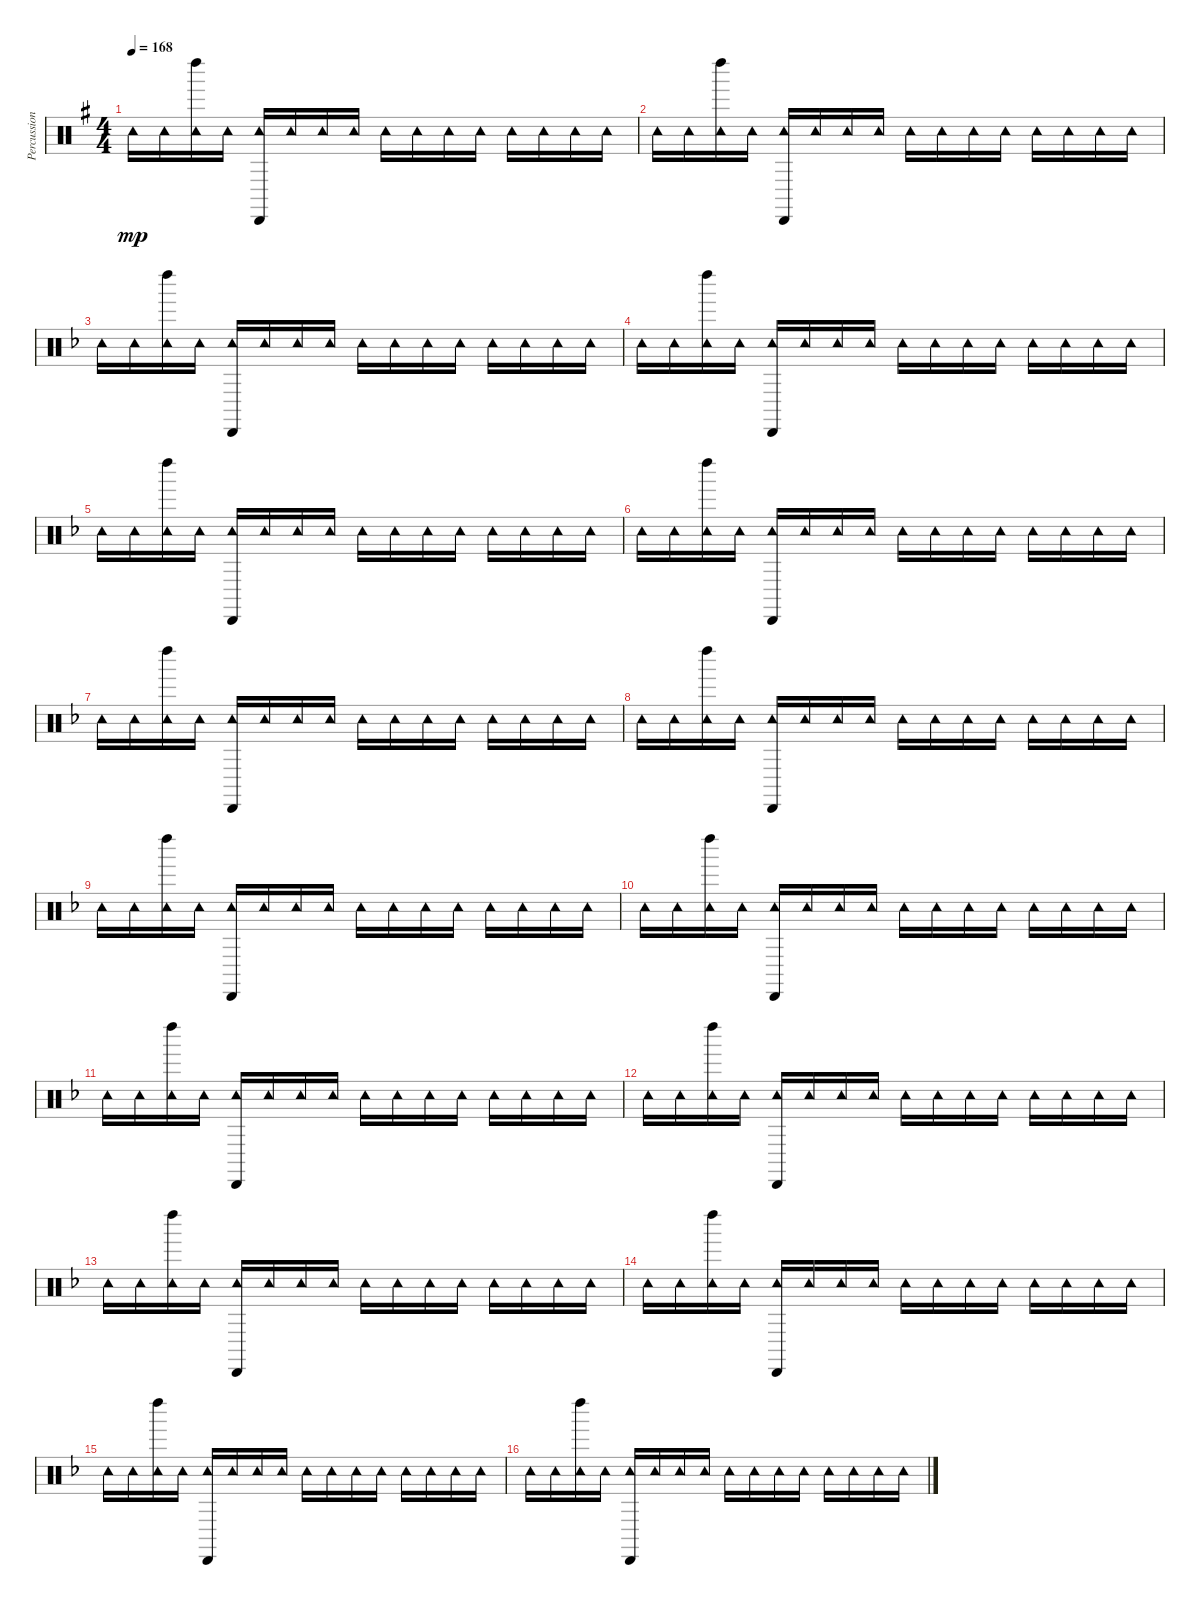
\track ("Percussions" "Percussion") {instrument percussion}
\staff {score}
\articulation defaults
\ts (4 4)
\tempo 168
\clef neutral
\ks g "Tambourine (hit)".16{dy mp} "Tambourine (hit)".16
("Left Maraca (hit)" "Tambourine (hit)").16 "Tambourine (hit)".16 ("Cabasa (hit)" "Tambourine (hit)").16 "Tambourine (hit)".16 "Tambourine (hit)".16 "Tambourine (hit)".16 "Tambourine (hit)".16 "Tambourine (hit)".16 "Tambourine (hit)".16 "Tambourine (hit)".16 "Tambourine (hit)".16 "Tambourine (hit)".16 "Tambourine (hit)".16 "Tambourine (hit)".16 |
"Tambourine (hit)".16 "Tambourine (hit)".16 ("Left Maraca (hit)" "Tambourine (hit)").16 "Tambourine (hit)".16 ("Cabasa (hit)" "Tambourine (hit)").16 "Tambourine (hit)".16 "Tambourine (hit)".16 "Tambourine (hit)".16 "Tambourine (hit)".16 "Tambourine (hit)".16 "Tambourine (hit)".16 "Tambourine (hit)".16 "Tambourine (hit)".16 "Tambourine (hit)".16 "Tambourine (hit)".16 "Tambourine (hit)".16 |
\ks f "Tambourine (hit)".16 "Tambourine (hit)".16
("Left Maraca (hit)" "Tambourine (hit)").16 "Tambourine (hit)".16 ("Cabasa (hit)" "Tambourine (hit)").16 "Tambourine (hit)".16 "Tambourine (hit)".16 "Tambourine (hit)".16 "Tambourine (hit)".16 "Tambourine (hit)".16 "Tambourine (hit)".16 "Tambourine (hit)".16 "Tambourine (hit)".16 "Tambourine (hit)".16 "Tambourine (hit)".16 "Tambourine (hit)".16 |
"Tambourine (hit)".16 "Tambourine (hit)".16 ("Left Maraca (hit)" "Tambourine (hit)").16 "Tambourine (hit)".16 ("Cabasa (hit)" "Tambourine (hit)").16 "Tambourine (hit)".16 "Tambourine (hit)".16 "Tambourine (hit)".16 "Tambourine (hit)".16 "Tambourine (hit)".16 "Tambourine (hit)".16 "Tambourine (hit)".16 "Tambourine (hit)".16 "Tambourine (hit)".16 "Tambourine (hit)".16 "Tambourine (hit)".16 |
"Tambourine (hit)".16 "Tambourine (hit)".16 ("Left Maraca (hit)" "Tambourine (hit)").16 "Tambourine (hit)".16 ("Cabasa (hit)" "Tambourine (hit)").16 "Tambourine (hit)".16 "Tambourine (hit)".16 "Tambourine (hit)".16 "Tambourine (hit)".16 "Tambourine (hit)".16 "Tambourine (hit)".16 "Tambourine (hit)".16 "Tambourine (hit)".16 "Tambourine (hit)".16 "Tambourine (hit)".16 "Tambourine (hit)".16 |
"Tambourine (hit)".16 "Tambourine (hit)".16 ("Left Maraca (hit)" "Tambourine (hit)").16 "Tambourine (hit)".16 ("Cabasa (hit)" "Tambourine (hit)").16 "Tambourine (hit)".16 "Tambourine (hit)".16 "Tambourine (hit)".16 "Tambourine (hit)".16 "Tambourine (hit)".16 "Tambourine (hit)".16 "Tambourine (hit)".16 "Tambourine (hit)".16 "Tambourine (hit)".16 "Tambourine (hit)".16 "Tambourine (hit)".16 |
"Tambourine (hit)".16 "Tambourine (hit)".16 ("Left Maraca (hit)" "Tambourine (hit)").16 "Tambourine (hit)".16 ("Cabasa (hit)" "Tambourine (hit)").16 "Tambourine (hit)".16 "Tambourine (hit)".16 "Tambourine (hit)".16 "Tambourine (hit)".16 "Tambourine (hit)".16 "Tambourine (hit)".16 "Tambourine (hit)".16 "Tambourine (hit)".16 "Tambourine (hit)".16 "Tambourine (hit)".16 "Tambourine (hit)".16 |
"Tambourine (hit)".16 "Tambourine (hit)".16 ("Left Maraca (hit)" "Tambourine (hit)").16 "Tambourine (hit)".16 ("Cabasa (hit)" "Tambourine (hit)").16 "Tambourine (hit)".16 "Tambourine (hit)".16 "Tambourine (hit)".16 "Tambourine (hit)".16 "Tambourine (hit)".16 "Tambourine (hit)".16 "Tambourine (hit)".16 "Tambourine (hit)".16 "Tambourine (hit)".16 "Tambourine (hit)".16 "Tambourine (hit)".16 |
"Tambourine (hit)".16 "Tambourine (hit)".16 ("Left Maraca (hit)" "Tambourine (hit)").16 "Tambourine (hit)".16 ("Cabasa (hit)" "Tambourine (hit)").16 "Tambourine (hit)".16 "Tambourine (hit)".16 "Tambourine (hit)".16 "Tambourine (hit)".16 "Tambourine (hit)".16 "Tambourine (hit)".16 "Tambourine (hit)".16 "Tambourine (hit)".16 "Tambourine (hit)".16 "Tambourine (hit)".16 "Tambourine (hit)".16 |
"Tambourine (hit)".16 "Tambourine (hit)".16 ("Left Maraca (hit)" "Tambourine (hit)").16 "Tambourine (hit)".16 ("Cabasa (hit)" "Tambourine (hit)").16 "Tambourine (hit)".16 "Tambourine (hit)".16 "Tambourine (hit)".16 "Tambourine (hit)".16 "Tambourine (hit)".16 "Tambourine (hit)".16 "Tambourine (hit)".16 "Tambourine (hit)".16 "Tambourine (hit)".16 "Tambourine (hit)".16 "Tambourine (hit)".16 |
"Tambourine (hit)".16 "Tambourine (hit)".16 ("Left Maraca (hit)" "Tambourine (hit)").16 "Tambourine (hit)".16 ("Cabasa (hit)" "Tambourine (hit)").16 "Tambourine (hit)".16 "Tambourine (hit)".16 "Tambourine (hit)".16 "Tambourine (hit)".16 "Tambourine (hit)".16 "Tambourine (hit)".16 "Tambourine (hit)".16 "Tambourine (hit)".16 "Tambourine (hit)".16 "Tambourine (hit)".16 "Tambourine (hit)".16 |
"Tambourine (hit)".16 "Tambourine (hit)".16 ("Left Maraca (hit)" "Tambourine (hit)").16 "Tambourine (hit)".16 ("Cabasa (hit)" "Tambourine (hit)").16 "Tambourine (hit)".16 "Tambourine (hit)".16 "Tambourine (hit)".16 "Tambourine (hit)".16 "Tambourine (hit)".16 "Tambourine (hit)".16 "Tambourine (hit)".16 "Tambourine (hit)".16 "Tambourine (hit)".16 "Tambourine (hit)".16 "Tambourine (hit)".16 |
"Tambourine (hit)".16 "Tambourine (hit)".16 ("Left Maraca (hit)" "Tambourine (hit)").16 "Tambourine (hit)".16 ("Cabasa (hit)" "Tambourine (hit)").16 "Tambourine (hit)".16 "Tambourine (hit)".16 "Tambourine (hit)".16 "Tambourine (hit)".16 "Tambourine (hit)".16 "Tambourine (hit)".16 "Tambourine (hit)".16 "Tambourine (hit)".16 "Tambourine (hit)".16 "Tambourine (hit)".16 "Tambourine (hit)".16 |
"Tambourine (hit)".16 "Tambourine (hit)".16 ("Left Maraca (hit)" "Tambourine (hit)").16 "Tambourine (hit)".16 ("Cabasa (hit)" "Tambourine (hit)").16 "Tambourine (hit)".16 "Tambourine (hit)".16 "Tambourine (hit)".16 "Tambourine (hit)".16 "Tambourine (hit)".16 "Tambourine (hit)".16 "Tambourine (hit)".16 "Tambourine (hit)".16 "Tambourine (hit)".16 "Tambourine (hit)".16 "Tambourine (hit)".16 |
"Tambourine (hit)".16 "Tambourine (hit)".16 ("Left Maraca (hit)" "Tambourine (hit)").16 "Tambourine (hit)".16 ("Cabasa (hit)" "Tambourine (hit)").16 "Tambourine (hit)".16 "Tambourine (hit)".16 "Tambourine (hit)".16 "Tambourine (hit)".16 "Tambourine (hit)".16 "Tambourine (hit)".16 "Tambourine (hit)".16 "Tambourine (hit)".16 "Tambourine (hit)".16 "Tambourine (hit)".16 "Tambourine (hit)".16 |
"Tambourine (hit)".16 "Tambourine (hit)".16 ("Left Maraca (hit)" "Tambourine (hit)").16 "Tambourine (hit)".16 ("Cabasa (hit)" "Tambourine (hit)").16 "Tambourine (hit)".16 "Tambourine (hit)".16 "Tambourine (hit)".16 "Tambourine (hit)".16 "Tambourine (hit)".16 "Tambourine (hit)".16 "Tambourine (hit)".16 "Tambourine (hit)".16 "Tambourine (hit)".16 "Tambourine (hit)".16 "Tambourine (hit)".16
